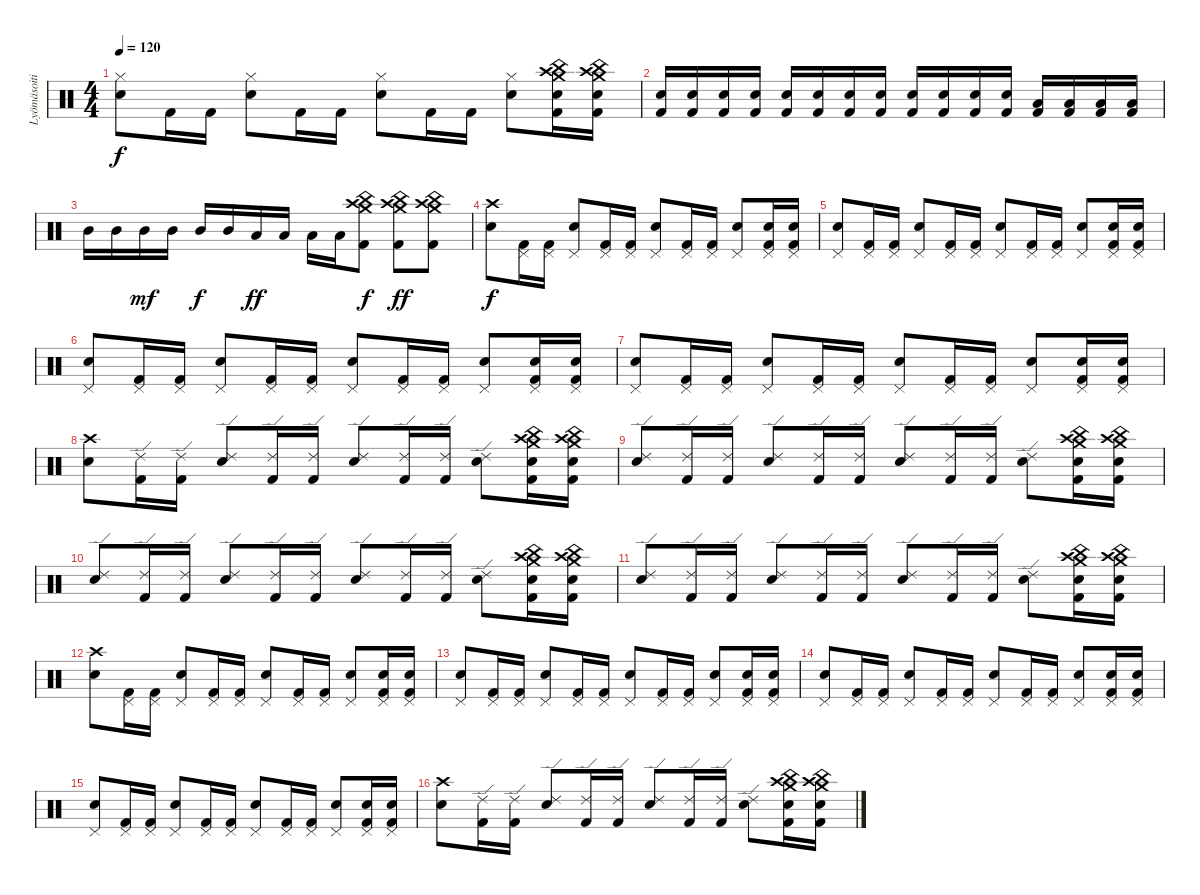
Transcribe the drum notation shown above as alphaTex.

\track ("Lyömäsoitin" "Lyömäsoiti") {instrument percussion}
\staff {score}
\articulation defaults
\ts (4 4)
\tempo 120
\clef neutral
\ks c
("Hi-Hat (closed)" "Snare (hit) 2").8{dy f} "Kick (hit) 2".16 "Kick (hit) 2".16 ("Hi-Hat (closed)" "Snare (hit) 2").8 "Kick (hit) 2".16 "Kick (hit) 2".16 ("Hi-Hat (closed)" "Snare (hit) 2").8 "Kick (hit) 2".16 "Kick (hit) 2".16 ("Hi-Hat (closed)" "Snare (hit) 2").8 ("Crash high (hit)" "Crash medium (hit)" "China (hit)" "Snare (hit) 2" "Kick (hit) 2").16 ("Crash high (hit)" "Crash medium (hit)" "China (hit)" "Snare (hit) 2" "Kick (hit) 2").16 |
("Snare (hit) 2" "Kick (hit) 2").16 ("Snare (hit) 2" "Kick (hit) 2").16 ("Snare (hit) 2" "Kick (hit) 2").16 ("Snare (hit) 2" "Kick (hit) 2").16 ("Snare (hit) 2" "Kick (hit) 2").16 ("Snare (hit) 2" "Kick (hit) 2").16 ("Snare (hit) 2" "Kick (hit) 2").16 ("Snare (hit) 2" "Kick (hit) 2").16 ("Snare (hit) 2" "Kick (hit) 2").16 ("Snare (hit) 2" "Kick (hit) 2").16 ("Snare (hit) 2" "Kick (hit) 2").16 ("Snare (hit) 2" "Kick (hit) 2").16 ("Low Floor Tom (hit)" "Kick (hit) 2").16 ("Low Floor Tom (hit)" "Kick (hit) 2").16 ("Low Floor Tom (hit)" "Kick (hit) 2").16 ("Low Floor Tom (hit)" "Kick (hit) 2").16 |
"Mid Tom (hit)".16 "Mid Tom (hit)".16 "Mid Tom (hit)".16{dy mf} "Mid Tom (hit)".16 "Mid Tom (hit)".16{dy f} "Mid Tom (hit)".16 "Low Tom (hit)".16{dy ff} "Low Tom (hit)".16 "Low Tom (hit)".16 "Low Tom (hit)".16 ("China (hit)" "Kick (hit) 2" "Crash medium (hit)" "Crash high (hit)").8{dy f} ("Kick (hit) 2" "China (hit)" "Crash medium (hit)" "Crash high (hit)").8{dy ff} ("Kick (hit) 2" "China (hit)" "Crash medium (hit)" "Crash high (hit)").8 |
("Crash high (hit)" "Snare (hit) 2").8{dy f} ("Pedal Hi-Hat (hit)" "Kick (hit) 2").16 ("Pedal Hi-Hat (hit)" "Kick (hit) 2").16 ("Pedal Hi-Hat (hit)" "Snare (hit) 2").8 ("Pedal Hi-Hat (hit)" "Kick (hit) 2").16 ("Pedal Hi-Hat (hit)" "Kick (hit) 2").16 ("Pedal Hi-Hat (hit)" "Snare (hit) 2").8 ("Pedal Hi-Hat (hit)" "Kick (hit) 2").16 ("Pedal Hi-Hat (hit)" "Kick (hit) 2").16 ("Pedal Hi-Hat (hit)" "Snare (hit) 2").8 ("Pedal Hi-Hat (hit)" "Snare (hit) 2" "Kick (hit) 2").16 ("Pedal Hi-Hat (hit)" "Snare (hit) 2" "Kick (hit) 2").16 |
("Pedal Hi-Hat (hit)" "Snare (hit) 2").8 ("Pedal Hi-Hat (hit)" "Kick (hit) 2").16 ("Pedal Hi-Hat (hit)" "Kick (hit) 2").16 ("Pedal Hi-Hat (hit)" "Snare (hit) 2").8 ("Pedal Hi-Hat (hit)" "Kick (hit) 2").16 ("Pedal Hi-Hat (hit)" "Kick (hit) 2").16 ("Pedal Hi-Hat (hit)" "Snare (hit) 2").8 ("Pedal Hi-Hat (hit)" "Kick (hit) 2").16 ("Pedal Hi-Hat (hit)" "Kick (hit) 2").16 ("Pedal Hi-Hat (hit)" "Snare (hit) 2").8 ("Pedal Hi-Hat (hit)" "Snare (hit) 2" "Kick (hit) 2").16 ("Pedal Hi-Hat (hit)" "Snare (hit) 2" "Kick (hit) 2").16 |
("Pedal Hi-Hat (hit)" "Snare (hit) 2").8 ("Pedal Hi-Hat (hit)" "Kick (hit) 2").16 ("Pedal Hi-Hat (hit)" "Kick (hit) 2").16 ("Pedal Hi-Hat (hit)" "Snare (hit) 2").8 ("Pedal Hi-Hat (hit)" "Kick (hit) 2").16 ("Pedal Hi-Hat (hit)" "Kick (hit) 2").16 ("Pedal Hi-Hat (hit)" "Snare (hit) 2").8 ("Pedal Hi-Hat (hit)" "Kick (hit) 2").16 ("Pedal Hi-Hat (hit)" "Kick (hit) 2").16 ("Pedal Hi-Hat (hit)" "Snare (hit) 2").8 ("Pedal Hi-Hat (hit)" "Snare (hit) 2" "Kick (hit) 2").16 ("Pedal Hi-Hat (hit)" "Snare (hit) 2" "Kick (hit) 2").16 |
("Pedal Hi-Hat (hit)" "Snare (hit) 2").8 ("Pedal Hi-Hat (hit)" "Kick (hit) 2").16 ("Pedal Hi-Hat (hit)" "Kick (hit) 2").16 ("Pedal Hi-Hat (hit)" "Snare (hit) 2").8 ("Pedal Hi-Hat (hit)" "Kick (hit) 2").16 ("Pedal Hi-Hat (hit)" "Kick (hit) 2").16 ("Pedal Hi-Hat (hit)" "Snare (hit) 2").8 ("Pedal Hi-Hat (hit)" "Kick (hit) 2").16 ("Pedal Hi-Hat (hit)" "Kick (hit) 2").16 ("Pedal Hi-Hat (hit)" "Snare (hit) 2").8 ("Pedal Hi-Hat (hit)" "Snare (hit) 2" "Kick (hit) 2").16 ("Pedal Hi-Hat (hit)" "Snare (hit) 2" "Kick (hit) 2").16 |
("Crash high (hit)" "Snare (hit) 2").8 ("Ride (edge) 2" "Kick (hit) 2").16 ("Ride (edge) 2" "Kick (hit) 2").16 ("Ride (edge) 2" "Snare (hit) 2").8 ("Ride (edge) 2" "Kick (hit) 2").16 ("Ride (edge) 2" "Kick (hit) 2").16 ("Ride (edge) 2" "Snare (hit) 2").8 ("Ride (edge) 2" "Kick (hit) 2").16 ("Ride (edge) 2" "Kick (hit) 2").16 ("Ride (edge) 2" "Snare (hit) 2").8 ("Crash high (hit)" "Crash medium (hit)" "China (hit)" "Snare (hit) 2" "Kick (hit) 2").16 ("Crash high (hit)" "Crash medium (hit)" "China (hit)" "Snare (hit) 2" "Kick (hit) 2").16 |
("Ride (edge) 2" "Snare (hit) 2").8 ("Ride (edge) 2" "Kick (hit) 2").16 ("Ride (edge) 2" "Kick (hit) 2").16 ("Ride (edge) 2" "Snare (hit) 2").8 ("Ride (edge) 2" "Kick (hit) 2").16 ("Ride (edge) 2" "Kick (hit) 2").16 ("Ride (edge) 2" "Snare (hit) 2").8 ("Ride (edge) 2" "Kick (hit) 2").16 ("Ride (edge) 2" "Kick (hit) 2").16 ("Ride (edge) 2" "Snare (hit) 2").8 ("Crash high (hit)" "Crash medium (hit)" "China (hit)" "Snare (hit) 2" "Kick (hit) 2").16 ("Crash high (hit)" "Crash medium (hit)" "China (hit)" "Snare (hit) 2" "Kick (hit) 2").16 |
("Ride (edge) 2" "Snare (hit) 2").8 ("Ride (edge) 2" "Kick (hit) 2").16 ("Ride (edge) 2" "Kick (hit) 2").16 ("Ride (edge) 2" "Snare (hit) 2").8 ("Ride (edge) 2" "Kick (hit) 2").16 ("Ride (edge) 2" "Kick (hit) 2").16 ("Ride (edge) 2" "Snare (hit) 2").8 ("Ride (edge) 2" "Kick (hit) 2").16 ("Ride (edge) 2" "Kick (hit) 2").16 ("Ride (edge) 2" "Snare (hit) 2").8 ("Crash high (hit)" "Crash medium (hit)" "China (hit)" "Snare (hit) 2" "Kick (hit) 2").16 ("Crash high (hit)" "Crash medium (hit)" "China (hit)" "Snare (hit) 2" "Kick (hit) 2").16 |
("Ride (edge) 2" "Snare (hit) 2").8 ("Ride (edge) 2" "Kick (hit) 2").16 ("Ride (edge) 2" "Kick (hit) 2").16 ("Ride (edge) 2" "Snare (hit) 2").8 ("Ride (edge) 2" "Kick (hit) 2").16 ("Ride (edge) 2" "Kick (hit) 2").16 ("Ride (edge) 2" "Snare (hit) 2").8 ("Ride (edge) 2" "Kick (hit) 2").16 ("Ride (edge) 2" "Kick (hit) 2").16 ("Ride (edge) 2" "Snare (hit) 2").8 ("Crash high (hit)" "Crash medium (hit)" "China (hit)" "Snare (hit) 2" "Kick (hit) 2").16 ("Crash high (hit)" "Crash medium (hit)" "China (hit)" "Snare (hit) 2" "Kick (hit) 2").16 |
("Crash high (hit)" "Snare (hit) 2").8 ("Pedal Hi-Hat (hit)" "Kick (hit) 2").16 ("Pedal Hi-Hat (hit)" "Kick (hit) 2").16 ("Pedal Hi-Hat (hit)" "Snare (hit) 2").8 ("Pedal Hi-Hat (hit)" "Kick (hit) 2").16 ("Pedal Hi-Hat (hit)" "Kick (hit) 2").16 ("Pedal Hi-Hat (hit)" "Snare (hit) 2").8 ("Pedal Hi-Hat (hit)" "Kick (hit) 2").16 ("Pedal Hi-Hat (hit)" "Kick (hit) 2").16 ("Pedal Hi-Hat (hit)" "Snare (hit) 2").8 ("Pedal Hi-Hat (hit)" "Snare (hit) 2" "Kick (hit) 2").16 ("Pedal Hi-Hat (hit)" "Snare (hit) 2" "Kick (hit) 2").16 |
("Pedal Hi-Hat (hit)" "Snare (hit) 2").8 ("Pedal Hi-Hat (hit)" "Kick (hit) 2").16 ("Pedal Hi-Hat (hit)" "Kick (hit) 2").16 ("Pedal Hi-Hat (hit)" "Snare (hit) 2").8 ("Pedal Hi-Hat (hit)" "Kick (hit) 2").16 ("Pedal Hi-Hat (hit)" "Kick (hit) 2").16 ("Pedal Hi-Hat (hit)" "Snare (hit) 2").8 ("Pedal Hi-Hat (hit)" "Kick (hit) 2").16 ("Pedal Hi-Hat (hit)" "Kick (hit) 2").16 ("Pedal Hi-Hat (hit)" "Snare (hit) 2").8 ("Pedal Hi-Hat (hit)" "Snare (hit) 2" "Kick (hit) 2").16 ("Pedal Hi-Hat (hit)" "Snare (hit) 2" "Kick (hit) 2").16 |
("Pedal Hi-Hat (hit)" "Snare (hit) 2").8 ("Pedal Hi-Hat (hit)" "Kick (hit) 2").16 ("Pedal Hi-Hat (hit)" "Kick (hit) 2").16 ("Pedal Hi-Hat (hit)" "Snare (hit) 2").8 ("Pedal Hi-Hat (hit)" "Kick (hit) 2").16 ("Pedal Hi-Hat (hit)" "Kick (hit) 2").16 ("Pedal Hi-Hat (hit)" "Snare (hit) 2").8 ("Pedal Hi-Hat (hit)" "Kick (hit) 2").16 ("Pedal Hi-Hat (hit)" "Kick (hit) 2").16 ("Pedal Hi-Hat (hit)" "Snare (hit) 2").8 ("Pedal Hi-Hat (hit)" "Snare (hit) 2" "Kick (hit) 2").16 ("Pedal Hi-Hat (hit)" "Snare (hit) 2" "Kick (hit) 2").16 |
("Pedal Hi-Hat (hit)" "Snare (hit) 2").8 ("Pedal Hi-Hat (hit)" "Kick (hit) 2").16 ("Pedal Hi-Hat (hit)" "Kick (hit) 2").16 ("Pedal Hi-Hat (hit)" "Snare (hit) 2").8 ("Pedal Hi-Hat (hit)" "Kick (hit) 2").16 ("Pedal Hi-Hat (hit)" "Kick (hit) 2").16 ("Pedal Hi-Hat (hit)" "Snare (hit) 2").8 ("Pedal Hi-Hat (hit)" "Kick (hit) 2").16 ("Pedal Hi-Hat (hit)" "Kick (hit) 2").16 ("Pedal Hi-Hat (hit)" "Snare (hit) 2").8 ("Pedal Hi-Hat (hit)" "Snare (hit) 2" "Kick (hit) 2").16 ("Pedal Hi-Hat (hit)" "Snare (hit) 2" "Kick (hit) 2").16 |
("Crash high (hit)" "Snare (hit) 2").8 ("Ride (edge) 2" "Kick (hit) 2").16 ("Ride (edge) 2" "Kick (hit) 2").16 ("Ride (edge) 2" "Snare (hit) 2").8 ("Ride (edge) 2" "Kick (hit) 2").16 ("Ride (edge) 2" "Kick (hit) 2").16 ("Ride (edge) 2" "Snare (hit) 2").8 ("Ride (edge) 2" "Kick (hit) 2").16 ("Ride (edge) 2" "Kick (hit) 2").16 ("Ride (edge) 2" "Snare (hit) 2").8 ("Crash high (hit)" "Crash medium (hit)" "China (hit)" "Snare (hit) 2" "Kick (hit) 2").16 ("Crash high (hit)" "Crash medium (hit)" "China (hit)" "Snare (hit) 2" "Kick (hit) 2").16
